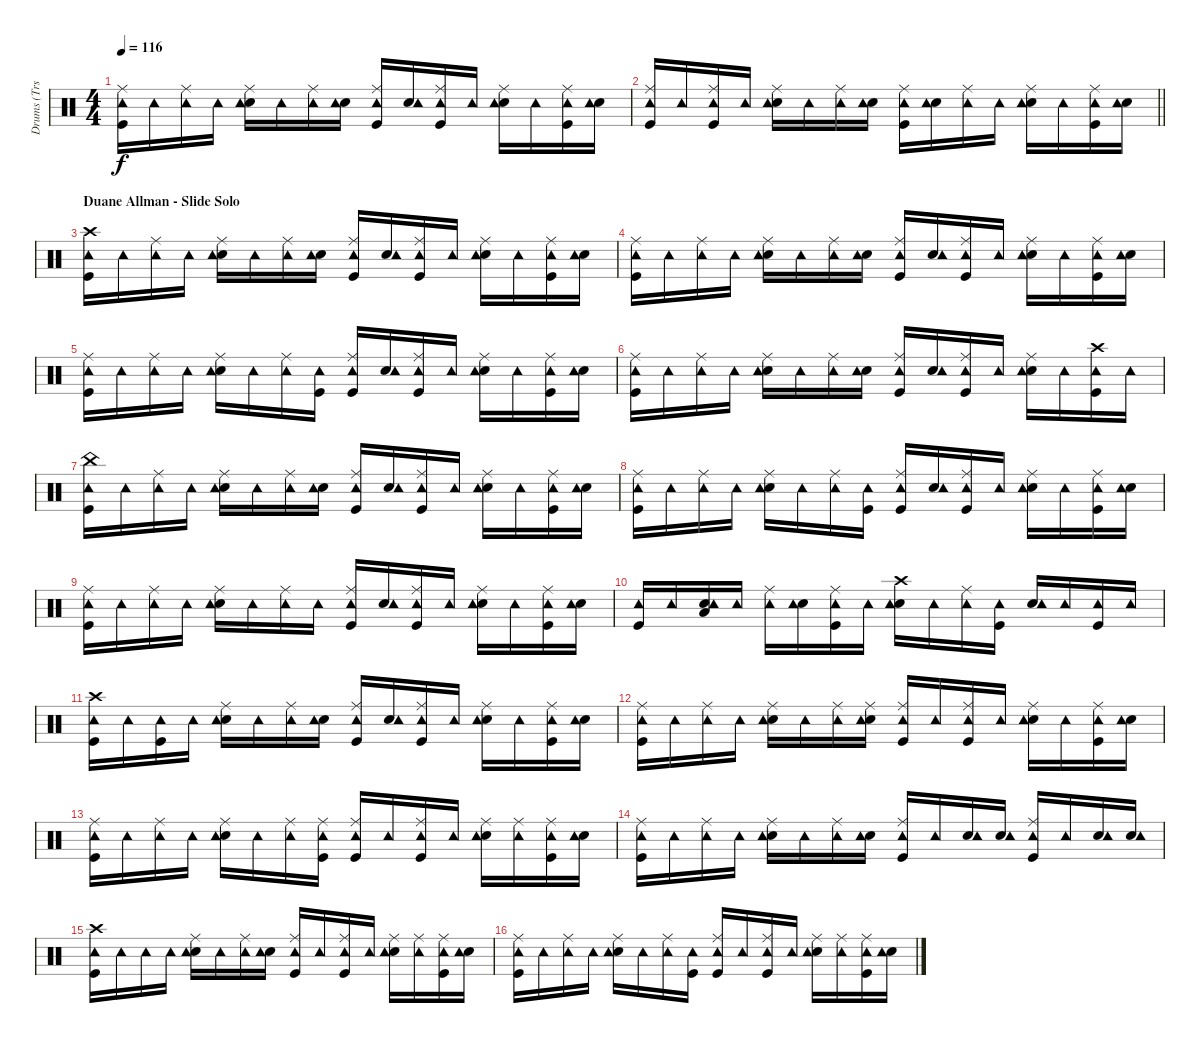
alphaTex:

\track ("Drums (Trs. 7-8A, 10A/7-8B, 10B, 12-13B)" "Drums (Trs") {mute instrument percussion}
\staff {score}
\articulation defaults
\ts (4 4)
\tempo 116
\clef neutral
\ks c
("Kick (hit)" "Ride (middle)" "Tambourine (hit)").16{dy f} "Tambourine (hit)".16 ("Ride (middle)" "Tambourine (hit)").16 "Tambourine (hit)".16 ("Ride (middle)" "Electric Snare (hit)" "Tambourine (hit)").16 "Tambourine (hit)".16 ("Ride (middle)" "Tambourine (hit)").16 ("Electric Snare (hit)" "Tambourine (hit)").16 ("Kick (hit)" "Ride (middle)" "Tambourine (hit)").16 ("Electric Snare (hit)" "Tambourine (hit)").16 ("Ride (middle)" "Kick (hit)" "Tambourine (hit)").16 "Tambourine (hit)".16 ("Ride (middle)" "Electric Snare (hit)" "Tambourine (hit)").16 "Tambourine (hit)".16 ("Ride (middle)" "Kick (hit)" "Tambourine (hit)").16 ("Electric Snare (hit)" "Tambourine (hit)").16 |
\barLineRight lightlight
("Kick (hit)" "Ride (middle)" "Tambourine (hit)").16 "Tambourine (hit)".16 ("Ride (middle)" "Kick (hit)" "Tambourine (hit)").16 "Tambourine (hit)".16 ("Electric Snare (hit)" "Ride (middle)" "Tambourine (hit)").16 "Tambourine (hit)".16 ("Ride (middle)" "Tambourine (hit)").16 ("Electric Snare (hit)" "Tambourine (hit)").16 ("Kick (hit)" "Ride (middle)" "Tambourine (hit)").16 ("Electric Snare (hit)" "Tambourine (hit)").16 ("Ride (middle)" "Tambourine (hit)").16 "Tambourine (hit)".16 ("Electric Snare (hit)" "Ride (middle)" "Tambourine (hit)").16 "Tambourine (hit)".16 ("Ride (middle)" "Kick (hit)" "Tambourine (hit)").16 ("Electric Snare (hit)" "Tambourine (hit)").16 |
\section ("" "Duane Allman - Slide Solo")
("Kick (hit)" "Crash high (hit)" "Tambourine (hit)").16 "Tambourine (hit)".16 ("Ride (middle)" "Tambourine (hit)").16 "Tambourine (hit)".16 ("Ride (middle)" "Electric Snare (hit)" "Tambourine (hit)").16 "Tambourine (hit)".16 ("Ride (middle)" "Tambourine (hit)").16 ("Electric Snare (hit)" "Tambourine (hit)").16 ("Kick (hit)" "Ride (middle)" "Tambourine (hit)").16 ("Electric Snare (hit)" "Tambourine (hit)").16 ("Ride (middle)" "Kick (hit)" "Tambourine (hit)").16 "Tambourine (hit)".16 ("Ride (middle)" "Electric Snare (hit)" "Tambourine (hit)").16 "Tambourine (hit)".16 ("Ride (middle)" "Kick (hit)" "Tambourine (hit)").16 ("Electric Snare (hit)" "Tambourine (hit)").16 |
("Kick (hit)" "Ride (middle)" "Tambourine (hit)").16 "Tambourine (hit)".16 ("Ride (middle)" "Tambourine (hit)").16 "Tambourine (hit)".16 ("Electric Snare (hit)" "Ride (middle)" "Tambourine (hit)").16 "Tambourine (hit)".16 ("Ride (middle)" "Tambourine (hit)").16 ("Electric Snare (hit)" "Tambourine (hit)").16 ("Ride (middle)" "Kick (hit)" "Tambourine (hit)").16 ("Electric Snare (hit)" "Tambourine (hit)").16 ("Ride (middle)" "Kick (hit)" "Tambourine (hit)").16 "Tambourine (hit)".16 ("Ride (middle)" "Electric Snare (hit)" "Tambourine (hit)").16 "Tambourine (hit)".16 ("Ride (middle)" "Kick (hit)" "Tambourine (hit)").16 ("Electric Snare (hit)" "Tambourine (hit)").16 |
("Kick (hit)" "Ride (middle)" "Tambourine (hit)").16 "Tambourine (hit)".16 ("Ride (middle)" "Tambourine (hit)").16 "Tambourine (hit)".16 ("Electric Snare (hit)" "Ride (middle)" "Tambourine (hit)").16 "Tambourine (hit)".16 ("Ride (middle)" "Tambourine (hit)").16 ("Kick (hit)" "Tambourine (hit)").16 ("Ride (middle)" "Kick (hit)" "Tambourine (hit)").16 ("Electric Snare (hit)" "Tambourine (hit)").16 ("Kick (hit)" "Ride (middle)" "Tambourine (hit)").16 "Tambourine (hit)".16 ("Electric Snare (hit)" "Ride (middle)" "Tambourine (hit)").16 "Tambourine (hit)".16 ("Kick (hit)" "Ride (middle)" "Tambourine (hit)").16 ("Electric Snare (hit)" "Tambourine (hit)").16 |
("Ride (middle)" "Kick (hit)" "Tambourine (hit)").16 "Tambourine (hit)".16 ("Ride (middle)" "Tambourine (hit)").16 "Tambourine (hit)".16 ("Electric Snare (hit)" "Ride (middle)" "Tambourine (hit)").16 "Tambourine (hit)".16 ("Ride (middle)" "Tambourine (hit)").16 ("Electric Snare (hit)" "Tambourine (hit)").16 ("Kick (hit)" "Ride (middle)" "Tambourine (hit)").16 ("Electric Snare (hit)" "Tambourine (hit)").16 ("Ride (middle)" "Kick (hit)" "Tambourine (hit)").16 "Tambourine (hit)".16 ("Electric Snare (hit)" "Ride (middle)" "Tambourine (hit)").16 "Tambourine (hit)".16 ("Kick (hit)" "Crash high (hit)" "Tambourine (hit)").16 "Tambourine (hit)".16 |
("China (hit)" "Kick (hit)" "Tambourine (hit)").16 "Tambourine (hit)".16 ("Ride (middle)" "Tambourine (hit)").16 "Tambourine (hit)".16 ("Ride (middle)" "Electric Snare (hit)" "Tambourine (hit)").16 "Tambourine (hit)".16 ("Ride (middle)" "Tambourine (hit)").16 ("Electric Snare (hit)" "Tambourine (hit)").16 ("Kick (hit)" "Ride (middle)" "Tambourine (hit)").16 ("Electric Snare (hit)" "Tambourine (hit)").16 ("Kick (hit)" "Ride (middle)" "Tambourine (hit)").16 "Tambourine (hit)".16 ("Ride (middle)" "Electric Snare (hit)" "Tambourine (hit)").16 "Tambourine (hit)".16 ("Ride (middle)" "Kick (hit)" "Tambourine (hit)").16 ("Electric Snare (hit)" "Tambourine (hit)").16 |
("Ride (middle)" "Kick (hit)" "Tambourine (hit)").16 "Tambourine (hit)".16 ("Ride (middle)" "Tambourine (hit)").16 "Tambourine (hit)".16 ("Ride (middle)" "Electric Snare (hit)" "Tambourine (hit)").16 "Tambourine (hit)".16 ("Ride (middle)" "Tambourine (hit)").16 ("Kick (hit)" "Tambourine (hit)").16 ("Ride (middle)" "Kick (hit)" "Tambourine (hit)").16 ("Electric Snare (hit)" "Tambourine (hit)").16 ("Kick (hit)" "Ride (middle)" "Tambourine (hit)").16 "Tambourine (hit)".16 ("Electric Snare (hit)" "Ride (middle)" "Tambourine (hit)").16 "Tambourine (hit)".16 ("Kick (hit)" "Ride (middle)" "Tambourine (hit)").16 ("Electric Snare (hit)" "Tambourine (hit)").16 |
("Ride (middle)" "Kick (hit)" "Tambourine (hit)").16 "Tambourine (hit)".16 ("Ride (middle)" "Tambourine (hit)").16 "Tambourine (hit)".16 ("Electric Snare (hit)" "Ride (middle)" "Tambourine (hit)").16 "Tambourine (hit)".16 ("Ride (middle)" "Tambourine (hit)").16 "Tambourine (hit)".16 ("Ride (middle)" "Kick (hit)" "Tambourine (hit)").16 ("Electric Snare (hit)" "Tambourine (hit)").16 ("Kick (hit)" "Ride (middle)" "Tambourine (hit)").16 "Tambourine (hit)".16 ("Ride (middle)" "Electric Snare (hit)" "Tambourine (hit)").16 "Tambourine (hit)".16 ("Ride (middle)" "Kick (hit)" "Tambourine (hit)").16 ("Electric Snare (hit)" "Tambourine (hit)").16 |
("Kick (hit)" "Tambourine (hit)").16 "Tambourine (hit)".16 ("Low Floor Tom (hit)" "Electric Snare (hit)" "Tambourine (hit)").16 "Tambourine (hit)".16 ("Ride (middle)" "Tambourine (hit)").16 ("Electric Snare (hit)" "Tambourine (hit)").16 ("Ride (middle)" "Kick (hit)" "Tambourine (hit)").16 "Tambourine (hit)".16 ("Crash high (hit)" "Electric Snare (hit)" "Tambourine (hit)").16 "Tambourine (hit)".16 ("Ride (middle)" "Tambourine (hit)").16 ("Kick (hit)" "Tambourine (hit)").16 ("Electric Snare (hit)" "Tambourine (hit)").16 "Tambourine (hit)".16 ("Kick (hit)" "Tambourine (hit)").16 "Tambourine (hit)".16 |
("Crash high (hit)" "Kick (hit)" "Tambourine (hit)").16 "Tambourine (hit)".16 ("Kick (hit)" "Tambourine (hit)").16 "Tambourine (hit)".16 ("Ride (middle)" "Electric Snare (hit)" "Tambourine (hit)").16 "Tambourine (hit)".16 ("Ride (middle)" "Tambourine (hit)").16 ("Electric Snare (hit)" "Tambourine (hit)").16 ("Ride (middle)" "Kick (hit)" "Tambourine (hit)").16 ("Electric Snare (hit)" "Tambourine (hit)").16 ("Kick (hit)" "Ride (middle)" "Tambourine (hit)").16 "Tambourine (hit)".16 ("Electric Snare (hit)" "Ride (middle)" "Tambourine (hit)").16 "Tambourine (hit)".16 ("Ride (middle)" "Kick (hit)" "Tambourine (hit)").16 ("Electric Snare (hit)" "Tambourine (hit)").16 |
("Kick (hit)" "Ride (middle)" "Tambourine (hit)").16 "Tambourine (hit)".16 ("Ride (middle)" "Tambourine (hit)").16 "Tambourine (hit)".16 ("Ride (middle)" "Electric Snare (hit)" "Tambourine (hit)").16 "Tambourine (hit)".16 ("Ride (middle)" "Tambourine (hit)").16 ("Ride (middle)" "Electric Snare (hit)" "Tambourine (hit)").16 ("Ride (middle)" "Kick (hit)" "Tambourine (hit)").16 "Tambourine (hit)".16 ("Kick (hit)" "Ride (middle)" "Tambourine (hit)").16 "Tambourine (hit)".16 ("Electric Snare (hit)" "Ride (middle)" "Tambourine (hit)").16 "Tambourine (hit)".16 ("Kick (hit)" "Ride (middle)" "Tambourine (hit)").16 ("Electric Snare (hit)" "Tambourine (hit)").16 |
("Ride (middle)" "Kick (hit)" "Tambourine (hit)").16 "Tambourine (hit)".16 ("Ride (middle)" "Tambourine (hit)").16 "Tambourine (hit)".16 ("Electric Snare (hit)" "Ride (middle)" "Tambourine (hit)").16 "Tambourine (hit)".16 ("Ride (middle)" "Tambourine (hit)").16 ("Ride (middle)" "Kick (hit)" "Tambourine (hit)").16 ("Ride (middle)" "Kick (hit)" "Tambourine (hit)").16 "Tambourine (hit)".16 ("Kick (hit)" "Ride (middle)" "Tambourine (hit)").16 "Tambourine (hit)".16 ("Ride (middle)" "Electric Snare (hit)" "Tambourine (hit)").16 ("Ride (middle)" "Tambourine (hit)").16 ("Ride (middle)" "Kick (hit)" "Tambourine (hit)").16 ("Electric Snare (hit)" "Tambourine (hit)").16 |
("Ride (middle)" "Kick (hit)" "Tambourine (hit)").16 "Tambourine (hit)".16 ("Ride (middle)" "Tambourine (hit)").16 "Tambourine (hit)".16 ("Electric Snare (hit)" "Ride (middle)" "Tambourine (hit)").16 "Tambourine (hit)".16 ("Ride (middle)" "Tambourine (hit)").16 ("Electric Snare (hit)" "Tambourine (hit)").16 ("Ride (middle)" "Kick (hit)" "Tambourine (hit)").16 "Tambourine (hit)".16 ("Electric Snare (hit)" "Tambourine (hit)").16 ("Electric Snare (hit)" "Tambourine (hit)").16 ("Ride (middle)" "Kick (hit)" "Tambourine (hit)").16 "Tambourine (hit)".16 ("Electric Snare (hit)" "Tambourine (hit)").16 ("Electric Snare (hit)" "Tambourine (hit)").16 |
("Crash high (hit)" "Kick (hit)" "Tambourine (hit)").16 "Tambourine (hit)".16 "Tambourine (hit)".16 "Tambourine (hit)".16 ("Electric Snare (hit)" "Ride (middle)" "Tambourine (hit)").16 "Tambourine (hit)".16 ("Ride (middle)" "Tambourine (hit)").16 ("Electric Snare (hit)" "Tambourine (hit)").16 ("Kick (hit)" "Ride (middle)" "Tambourine (hit)").16 "Tambourine (hit)".16 ("Ride (middle)" "Kick (hit)" "Tambourine (hit)").16 "Tambourine (hit)".16 ("Electric Snare (hit)" "Ride (middle)" "Tambourine (hit)").16 ("Ride (middle)" "Tambourine (hit)").16 ("Ride (middle)" "Kick (hit)" "Tambourine (hit)").16 ("Electric Snare (hit)" "Tambourine (hit)").16 |
("Ride (middle)" "Kick (hit)" "Tambourine (hit)").16 "Tambourine (hit)".16 ("Ride (middle)" "Tambourine (hit)").16 "Tambourine (hit)".16 ("Electric Snare (hit)" "Ride (middle)" "Tambourine (hit)").16 "Tambourine (hit)".16 ("Ride (middle)" "Tambourine (hit)").16 ("Kick (hit)" "Tambourine (hit)").16 ("Kick (hit)" "Ride (middle)" "Tambourine (hit)").16 "Tambourine (hit)".16 ("Kick (hit)" "Ride (middle)" "Tambourine (hit)").16 "Tambourine (hit)".16 ("Ride (middle)" "Electric Snare (hit)" "Tambourine (hit)").16 ("Ride (middle)" "Tambourine (hit)").16 ("Ride (middle)" "Kick (hit)" "Tambourine (hit)").16 ("Electric Snare (hit)" "Tambourine (hit)").16
